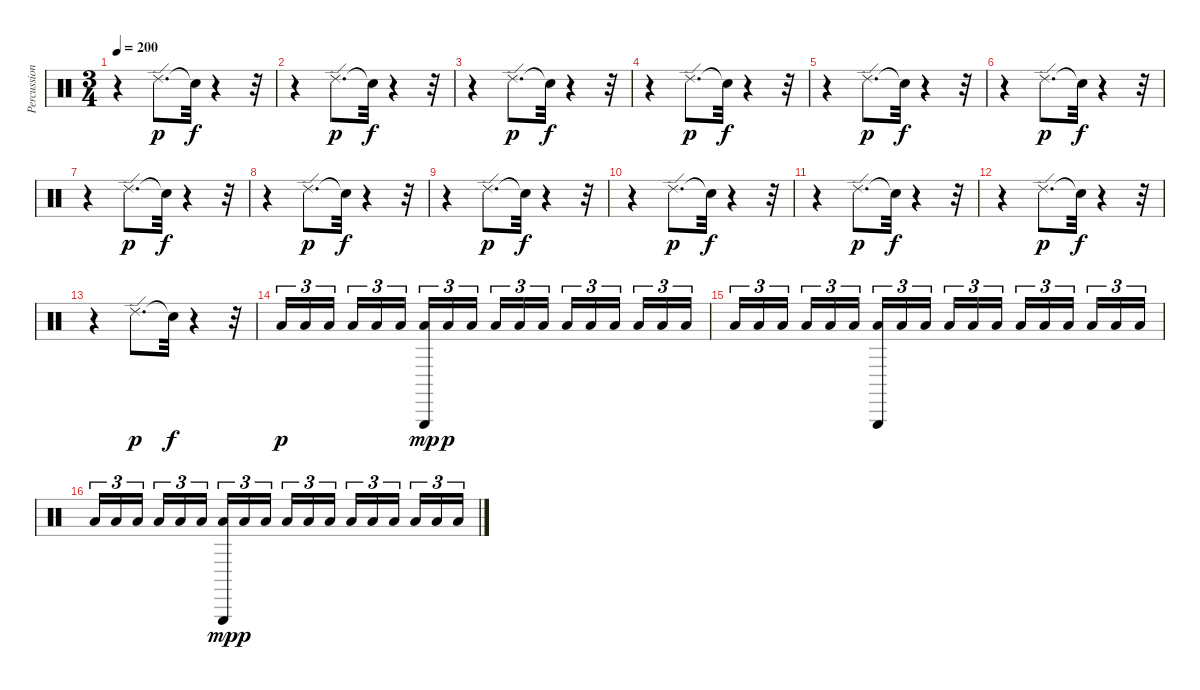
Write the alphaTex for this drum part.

\track ("Percussion." "Percussion") {instrument percussion}
\staff {score}
\articulation defaults
\ts (3 4)
\tempo 200
\clef neutral
\ks c
r.4{dy f} "Ride (edge) 2".8{d dy p} "Snare (hit)"{t}.32{dy f} r.4 r.32 |
r.4 "Ride (edge) 2".8{d dy p} "Snare (hit)"{t}.32{dy f} r.4 r.32 |
r.4 "Ride (edge) 2".8{d dy p} "Snare (hit)"{t}.32{dy f} r.4 r.32 |
r.4 "Ride (edge) 2".8{d dy p} "Snare (hit)"{t}.32{dy f} r.4 r.32 |
r.4 "Ride (edge) 2".8{d dy p} "Snare (hit)"{t}.32{dy f} r.4 r.32 |
r.4 "Ride (edge) 2".8{d dy p} "Snare (hit)"{t}.32{dy f} r.4 r.32 |
r.4 "Ride (edge) 2".8{d dy p} "Snare (hit)"{t}.32{dy f} r.4 r.32 |
r.4 "Ride (edge) 2".8{d dy p} "Snare (hit)"{t}.32{dy f} r.4 r.32 |
r.4 "Ride (edge) 2".8{d dy p} "Snare (hit)"{t}.32{dy f} r.4 r.32 |
r.4 "Ride (edge) 2".8{d dy p} "Snare (hit)"{t}.32{dy f} r.4 r.32 |
r.4 "Ride (edge) 2".8{d dy p} "Snare (hit)"{t}.32{dy f} r.4 r.32 |
r.4 "Ride (edge) 2".8{d dy p} "Snare (hit)"{t}.32{dy f} r.4 r.32 |
r.4 "Ride (edge) 2".8{d dy p} "Snare (hit)"{t}.32{dy f} r.4 r.32 |
"Low Tom (hit)".16{tu (3 2) dy p} "Low Tom (hit)".16{tu (3 2)} "Low Tom (hit)".16{tu (3 2) beam splitsecondary} "Low Tom (hit)".16{tu (3 2)} "Low Tom (hit)".16{tu (3 2)} "Low Tom (hit)".16{tu (3 2)} ("Low Tom (hit)" "Triangle (hit)").16{tu (3 2) dy mp} "Low Tom (hit)".16{tu (3 2) dy p} "Low Tom (hit)".16{tu (3 2) beam splitsecondary} "Low Tom (hit)".16{tu (3 2)} "Low Tom (hit)".16{tu (3 2)} "Low Tom (hit)".16{tu (3 2)} "Low Tom (hit)".16{tu (3 2)} "Low Tom (hit)".16{tu (3 2)} "Low Tom (hit)".16{tu (3 2) beam splitsecondary} "Low Tom (hit)".16{tu (3 2)} "Low Tom (hit)".16{tu (3 2)} "Low Tom (hit)".16{tu (3 2)} |
"Low Tom (hit)".16{tu (3 2)} "Low Tom (hit)".16{tu (3 2)} "Low Tom (hit)".16{tu (3 2) beam splitsecondary} "Low Tom (hit)".16{tu (3 2)} "Low Tom (hit)".16{tu (3 2)} "Low Tom (hit)".16{tu (3 2)} ("Triangle (hit)" "Low Tom (hit)").16{tu (3 2)} "Low Tom (hit)".16{tu (3 2)} "Low Tom (hit)".16{tu (3 2) beam splitsecondary} "Low Tom (hit)".16{tu (3 2)} "Low Tom (hit)".16{tu (3 2)} "Low Tom (hit)".16{tu (3 2)} "Low Tom (hit)".16{tu (3 2)} "Low Tom (hit)".16{tu (3 2)} "Low Tom (hit)".16{tu (3 2) beam splitsecondary} "Low Tom (hit)".16{tu (3 2)} "Low Tom (hit)".16{tu (3 2)} "Low Tom (hit)".16{tu (3 2)} |
"Low Tom (hit)".16{tu (3 2)} "Low Tom (hit)".16{tu (3 2)} "Low Tom (hit)".16{tu (3 2) beam splitsecondary} "Low Tom (hit)".16{tu (3 2)} "Low Tom (hit)".16{tu (3 2)} "Low Tom (hit)".16{tu (3 2)} ("Low Tom (hit)" "Triangle (hit)").16{tu (3 2) dy mp} "Low Tom (hit)".16{tu (3 2) dy p} "Low Tom (hit)".16{tu (3 2) beam splitsecondary} "Low Tom (hit)".16{tu (3 2)} "Low Tom (hit)".16{tu (3 2)} "Low Tom (hit)".16{tu (3 2)} "Low Tom (hit)".16{tu (3 2)} "Low Tom (hit)".16{tu (3 2)} "Low Tom (hit)".16{tu (3 2) beam splitsecondary} "Low Tom (hit)".16{tu (3 2)} "Low Tom (hit)".16{tu (3 2)} "Low Tom (hit)".16{tu (3 2)}
